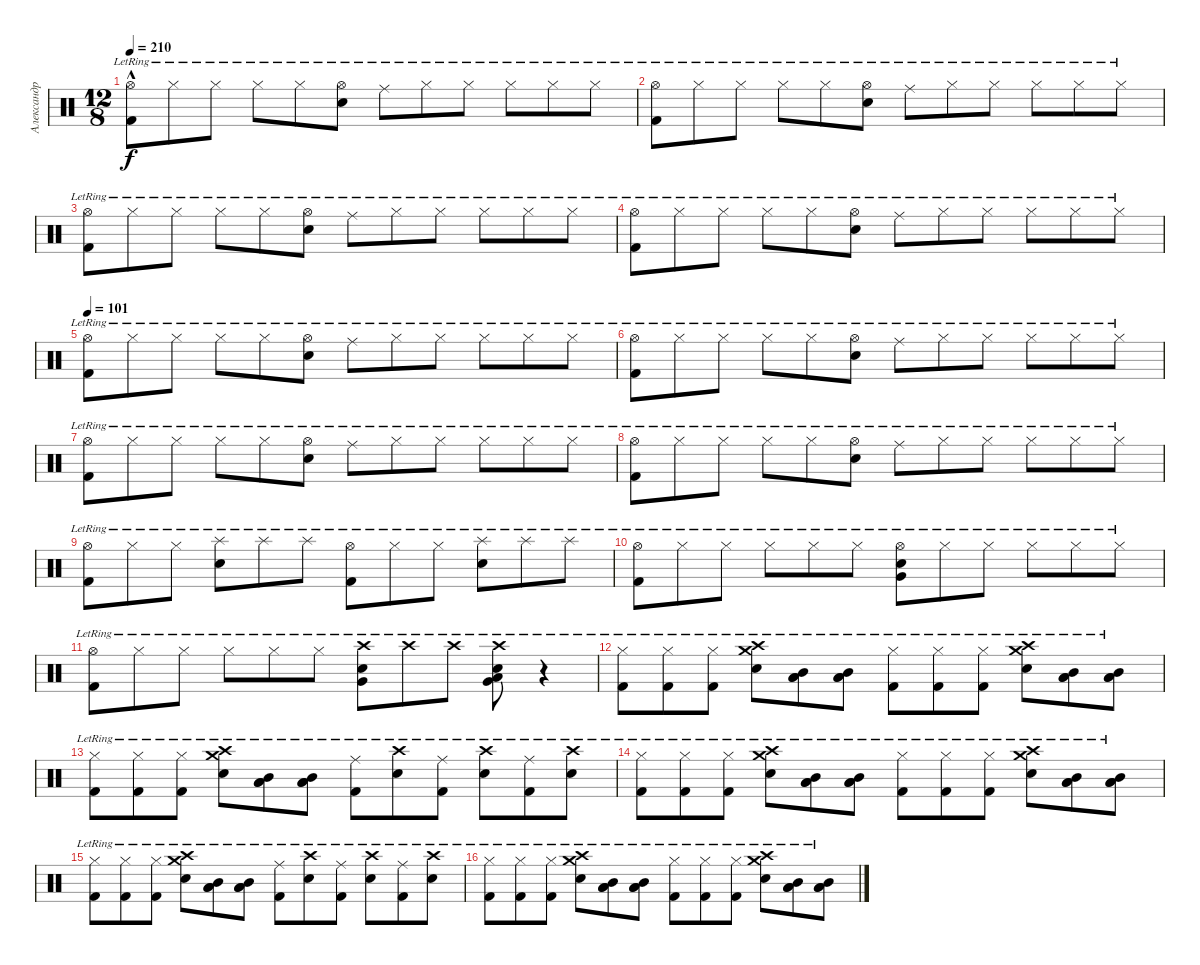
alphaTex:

\track ("Александр Манякин" "Александр ") {instrument percussion}
\staff {score}
\articulation defaults
\ts (12 8)
\tempo 210
\clef neutral
\ks c
("Hi-Hat (open)"{hac lr} "Kick (hit) 2"{hac lr}).8{dy f} "Hi-Hat (closed)"{lr}.8 "Hi-Hat (closed)"{lr}.8 "Hi-Hat (closed)"{lr}.8 "Hi-Hat (closed)"{lr}.8 ("Snare (hit) 2"{lr} "Hi-Hat (open)"{lr}).8 "Ride (middle)"{lr}.8 "Hi-Hat (closed)"{lr}.8 "Hi-Hat (closed)"{lr}.8 "Hi-Hat (closed)"{lr}.8 "Hi-Hat (closed)"{lr}.8 "Hi-Hat (closed)"{lr}.8 |
("Hi-Hat (open)"{lr} "Kick (hit) 2"{lr}).8 "Hi-Hat (closed)"{lr}.8 "Hi-Hat (closed)"{lr}.8 "Hi-Hat (closed)"{lr}.8 "Hi-Hat (closed)"{lr}.8 ("Snare (hit) 2"{lr} "Hi-Hat (open)"{lr}).8 "Ride (middle)"{lr}.8 "Hi-Hat (closed)"{lr}.8 "Hi-Hat (closed)"{lr}.8 "Hi-Hat (closed)"{lr}.8 "Hi-Hat (closed)"{lr}.8 "Hi-Hat (closed)"{lr}.8 |
("Hi-Hat (open)"{lr} "Kick (hit) 2"{lr}).8 "Hi-Hat (closed)"{lr}.8 "Hi-Hat (closed)"{lr}.8 "Hi-Hat (closed)"{lr}.8 "Hi-Hat (closed)"{lr}.8 ("Snare (hit) 2"{lr} "Hi-Hat (open)"{lr}).8 "Ride (middle)"{lr}.8 "Hi-Hat (closed)"{lr}.8 "Hi-Hat (closed)"{lr}.8 "Hi-Hat (closed)"{lr}.8 "Hi-Hat (closed)"{lr}.8 "Hi-Hat (closed)"{lr}.8 |
("Hi-Hat (open)"{lr} "Kick (hit) 2"{lr}).8 "Hi-Hat (closed)"{lr}.8 "Hi-Hat (closed)"{lr}.8 "Hi-Hat (closed)"{lr}.8 "Hi-Hat (closed)"{lr}.8 ("Snare (hit) 2"{lr} "Hi-Hat (open)"{lr}).8 "Ride (middle)"{lr}.8 "Hi-Hat (closed)"{lr}.8 "Hi-Hat (closed)"{lr}.8 "Hi-Hat (closed)"{lr}.8 "Hi-Hat (closed)"{lr}.8 "Hi-Hat (closed)"{lr}.8 |
\tempo 101
("Hi-Hat (open)"{lr} "Kick (hit) 2"{lr}).8 "Hi-Hat (closed)"{lr}.8 "Hi-Hat (closed)"{lr}.8 "Hi-Hat (closed)"{lr}.8 "Hi-Hat (closed)"{lr}.8 ("Snare (hit) 2"{lr} "Hi-Hat (open)"{lr}).8 "Ride (middle)"{lr}.8 "Hi-Hat (closed)"{lr}.8 "Hi-Hat (closed)"{lr}.8 "Hi-Hat (closed)"{lr}.8 "Hi-Hat (closed)"{lr}.8 "Hi-Hat (closed)"{lr}.8 |
("Hi-Hat (open)"{lr} "Kick (hit) 2"{lr}).8 "Hi-Hat (closed)"{lr}.8 "Hi-Hat (closed)"{lr}.8 "Hi-Hat (closed)"{lr}.8 "Hi-Hat (closed)"{lr}.8 ("Snare (hit) 2"{lr} "Hi-Hat (open)"{lr}).8 "Ride (middle)"{lr}.8 "Hi-Hat (closed)"{lr}.8 "Hi-Hat (closed)"{lr}.8 "Hi-Hat (closed)"{lr}.8 "Hi-Hat (closed)"{lr}.8 "Hi-Hat (closed)"{lr}.8 |
("Hi-Hat (open)"{lr} "Kick (hit) 2"{lr}).8 "Hi-Hat (closed)"{lr}.8 "Hi-Hat (closed)"{lr}.8 "Hi-Hat (closed)"{lr}.8 "Hi-Hat (closed)"{lr}.8 ("Snare (hit) 2"{lr} "Hi-Hat (open)"{lr}).8 "Ride (middle)"{lr}.8 "Hi-Hat (closed)"{lr}.8 "Hi-Hat (closed)"{lr}.8 "Hi-Hat (closed)"{lr}.8 "Hi-Hat (closed)"{lr}.8 "Hi-Hat (closed)"{lr}.8 |
("Hi-Hat (open)"{lr} "Kick (hit) 2"{lr}).8 "Hi-Hat (closed)"{lr}.8 "Hi-Hat (closed)"{lr}.8 "Hi-Hat (closed)"{lr}.8 "Hi-Hat (closed)"{lr}.8 ("Snare (hit) 2"{lr} "Hi-Hat (open)"{lr}).8 "Ride (middle)"{lr}.8 "Hi-Hat (closed)"{lr}.8 "Hi-Hat (closed)"{lr}.8 "Hi-Hat (closed)"{lr}.8 "Hi-Hat (closed)"{lr}.8 "Hi-Hat (closed)"{lr}.8 |
("Hi-Hat (open)"{lr} "Kick (hit) 2"{lr}).8 "Hi-Hat (closed)"{lr}.8 "Hi-Hat (closed)"{lr}.8 ("Snare (hit) 2"{lr} "Splash (hit)"{lr}).8 "Splash (hit)"{lr}.8 "Splash (hit)"{lr}.8 ("Kick (hit) 2"{lr} "Hi-Hat (open)"{lr}).8 "Hi-Hat (closed)"{lr}.8 "Hi-Hat (closed)"{lr}.8 ("Snare (hit) 2"{lr} "Splash (hit)"{lr}).8 "Splash (hit)"{lr}.8 "Splash (hit)"{lr}.8 |
("Hi-Hat (open)"{lr} "Kick (hit) 2"{lr}).8 "Hi-Hat (closed)"{lr}.8 "Hi-Hat (closed)"{lr}.8 "Hi-Hat (closed)"{lr}.8 "Hi-Hat (closed)"{lr}.8 "Hi-Hat (closed)"{lr}.8 ("Very Low Tom (hit)"{lr} "Hi-Hat (open)"{lr} "Snare (hit) 2"{lr}).8 "Hi-Hat (closed)"{lr}.8 "Hi-Hat (closed)"{lr}.8 "Hi-Hat (closed)"{lr}.8 "Hi-Hat (closed)"{lr}.8 "Hi-Hat (closed)"{lr}.8 |
("Hi-Hat (open)"{lr} "Kick (hit) 2"{lr}).8 "Hi-Hat (closed)"{lr}.8 "Hi-Hat (closed)"{lr}.8 "Hi-Hat (closed)"{lr}.8 "Hi-Hat (closed)"{lr}.8 "Hi-Hat (closed)"{lr}.8 ("Crash high (hit)"{lr} "Very Low Tom (hit)"{lr} "Snare (hit) 2"{lr}).8 "Crash high (hit)"{lr}.8 "Crash high (hit)"{lr}.8 ("Very Low Tom (hit)"{lr} "Crash high (hit)"{lr} "Low Floor Tom (hit)"{lr} "Snare (hit) 2"{lr}).8 r.4 |
("Hi-Hat (closed)"{lr} "Kick (hit) 2"{lr}).8 ("Hi-Hat (closed)"{lr} "Kick (hit) 2"{lr}).8 ("Hi-Hat (closed)"{lr} "Kick (hit) 2"{lr}).8 ("Snare (hit) 2"{lr} "Crash high (hit)"{lr} "Crash medium (hit)"{lr}).8 ("Low Tom (hit)"{lr} "Low Floor Tom (hit)"{lr} "Mid Tom (hit)"{lr}).8 ("Mid Tom (hit)"{lr} "Low Floor Tom (hit)"{lr} "Low Tom (hit)"{lr}).8 ("Hi-Hat (closed)"{lr} "Kick (hit) 2"{lr}).8 ("Hi-Hat (closed)"{lr} "Kick (hit) 2"{lr}).8 ("Hi-Hat (closed)"{lr} "Kick (hit) 2"{lr}).8 ("Crash medium (hit)"{lr} "Crash high (hit)"{lr} "Snare (hit) 2"{lr}).8 ("Mid Tom (hit)"{lr} "Low Tom (hit)"{lr} "Low Floor Tom (hit)"{lr}).8 ("Mid Tom (hit)"{lr} "Low Tom (hit)"{lr} "Low Floor Tom (hit)"{lr}).8 |
("Hi-Hat (closed)"{lr} "Kick (hit) 2"{lr}).8 ("Hi-Hat (closed)"{lr} "Kick (hit) 2"{lr}).8 ("Hi-Hat (closed)"{lr} "Kick (hit) 2"{lr}).8 ("Snare (hit) 2"{lr} "Crash high (hit)"{lr} "Crash medium (hit)"{lr}).8 ("Low Floor Tom (hit)"{lr} "Mid Tom (hit)"{lr} "Low Tom (hit)"{lr}).8 ("Mid Tom (hit)"{lr} "Low Tom (hit)"{lr} "Low Floor Tom (hit)"{lr}).8 ("Ride (middle)"{lr} "Kick (hit) 2"{lr}).8 ("Crash high (hit)"{lr} "Snare (hit) 2"{lr}).8 ("Ride (middle)"{lr} "Kick (hit) 2"{lr}).8 ("Crash high (hit)"{lr} "Snare (hit) 2"{lr}).8 ("Ride (middle)"{lr} "Kick (hit) 2"{lr}).8 ("Crash high (hit)"{lr} "Snare (hit) 2"{lr}).8 |
("Hi-Hat (closed)"{lr} "Kick (hit) 2"{lr}).8 ("Hi-Hat (closed)"{lr} "Kick (hit) 2"{lr}).8 ("Hi-Hat (closed)"{lr} "Kick (hit) 2"{lr}).8 ("Snare (hit) 2"{lr} "Crash high (hit)"{lr} "Crash medium (hit)"{lr}).8 ("Low Tom (hit)"{lr} "Low Floor Tom (hit)"{lr} "Mid Tom (hit)"{lr}).8 ("Mid Tom (hit)"{lr} "Low Floor Tom (hit)"{lr} "Low Tom (hit)"{lr}).8 ("Hi-Hat (closed)"{lr} "Kick (hit) 2"{lr}).8 ("Hi-Hat (closed)"{lr} "Kick (hit) 2"{lr}).8 ("Hi-Hat (closed)"{lr} "Kick (hit) 2"{lr}).8 ("Crash medium (hit)"{lr} "Crash high (hit)"{lr} "Snare (hit) 2"{lr}).8 ("Mid Tom (hit)"{lr} "Low Tom (hit)"{lr} "Low Floor Tom (hit)"{lr}).8 ("Mid Tom (hit)"{lr} "Low Tom (hit)"{lr} "Low Floor Tom (hit)"{lr}).8 |
("Hi-Hat (closed)"{lr} "Kick (hit) 2"{lr}).8 ("Hi-Hat (closed)"{lr} "Kick (hit) 2"{lr}).8 ("Hi-Hat (closed)"{lr} "Kick (hit) 2"{lr}).8 ("Snare (hit) 2"{lr} "Crash high (hit)"{lr} "Crash medium (hit)"{lr}).8 ("Low Floor Tom (hit)"{lr} "Mid Tom (hit)"{lr} "Low Tom (hit)"{lr}).8 ("Mid Tom (hit)"{lr} "Low Tom (hit)"{lr} "Low Floor Tom (hit)"{lr}).8 ("Ride (middle)"{lr} "Kick (hit) 2"{lr}).8 ("Crash high (hit)"{lr} "Snare (hit) 2"{lr}).8 ("Ride (middle)"{lr} "Kick (hit) 2"{lr}).8 ("Crash high (hit)"{lr} "Snare (hit) 2"{lr}).8 ("Ride (middle)"{lr} "Kick (hit) 2"{lr}).8 ("Crash high (hit)"{lr} "Snare (hit) 2"{lr}).8 |
("Hi-Hat (closed)"{lr} "Kick (hit) 2"{lr}).8 ("Hi-Hat (closed)"{lr} "Kick (hit) 2"{lr}).8 ("Hi-Hat (closed)"{lr} "Kick (hit) 2"{lr}).8 ("Snare (hit) 2"{lr} "Crash high (hit)"{lr} "Crash medium (hit)"{lr}).8 ("Low Tom (hit)"{lr} "Low Floor Tom (hit)"{lr} "Mid Tom (hit)"{lr}).8 ("Mid Tom (hit)"{lr} "Low Floor Tom (hit)"{lr} "Low Tom (hit)"{lr}).8 ("Hi-Hat (closed)"{lr} "Kick (hit) 2"{lr}).8 ("Hi-Hat (closed)"{lr} "Kick (hit) 2"{lr}).8 ("Hi-Hat (closed)"{lr} "Kick (hit) 2"{lr}).8 ("Crash medium (hit)"{lr} "Crash high (hit)"{lr} "Snare (hit) 2"{lr}).8 ("Mid Tom (hit)"{lr} "Low Tom (hit)"{lr} "Low Floor Tom (hit)"{lr}).8 ("Mid Tom (hit)"{lr} "Low Tom (hit)"{lr} "Low Floor Tom (hit)"{lr}).8
